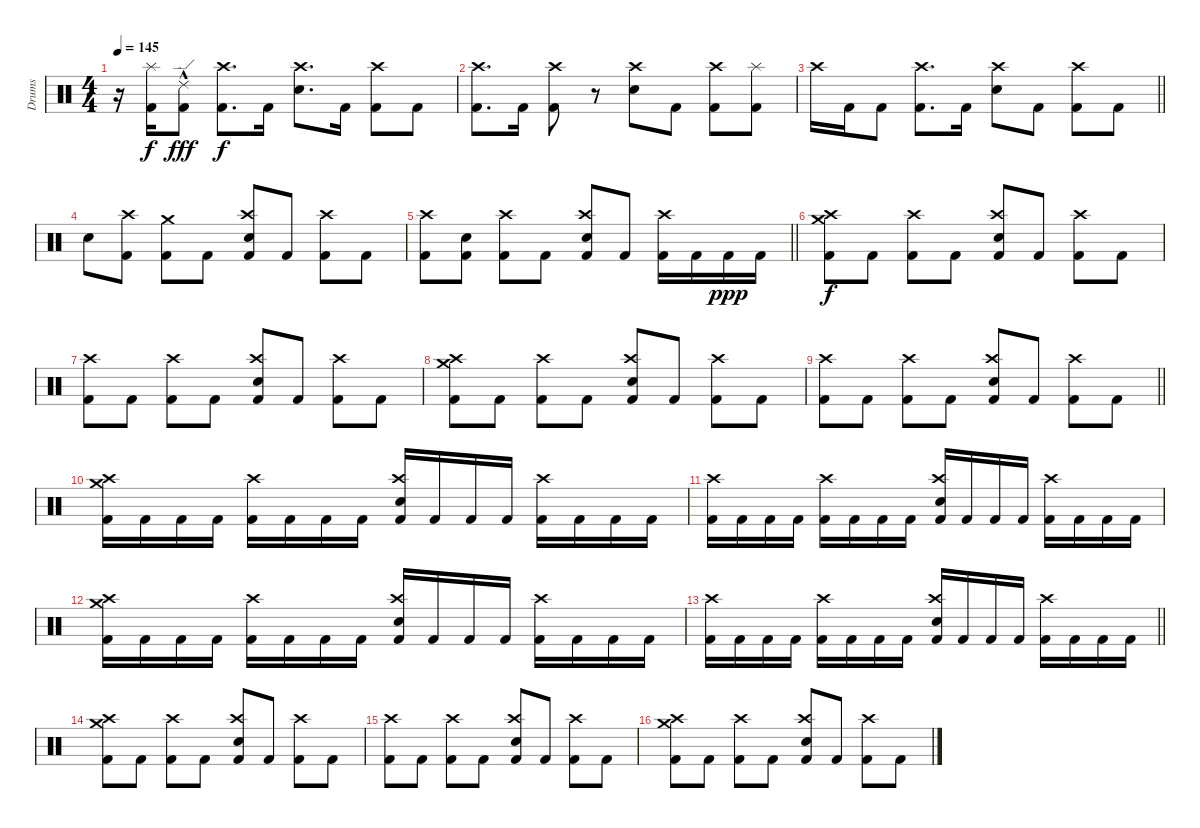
\track ("Drums" "Drums") {instrument percussion}
\staff {score}
\articulation defaults
\ts (4 4)
\tempo 145
\clef neutral
\ks c
r.16{dy f} ("Splash (hit)" "Kick (hit) 2").16 ("Ride (edge) 2"{hac} "Kick (hit) 2").8{dy fff} ("Crash high (hit)" "Kick (hit) 2").8{d dy f} "Kick (hit) 2".16 ("Crash high (hit)" "Electric Snare (hit)").8{d} "Kick (hit) 2".16 ("Crash high (hit)" "Kick (hit) 2").8 "Kick (hit) 2".8 |
("Crash high (hit)" "Kick (hit) 2").8{d} "Kick (hit) 2".16 ("Crash high (hit)" "Kick (hit) 2").8 r.8 ("Crash high (hit)" "Electric Snare (hit)").8 "Kick (hit) 2".8 ("Crash high (hit)" "Kick (hit) 2").8 ("Splash (hit)" "Kick (hit) 2").8 |
\barLineRight lightlight "Crash high (hit)".16 "Kick (hit) 2".16 "Kick (hit) 2".8
("Crash high (hit)" "Kick (hit) 2").8{d} "Kick (hit) 2".16 ("Crash high (hit)" "Electric Snare (hit)").8 "Kick (hit) 2".8 ("Crash high (hit)" "Kick (hit) 2").8 "Kick (hit) 2".8 |
"Electric Snare (hit)".8 ("Crash high (hit)" "Kick (hit) 2").8 ("Crash medium (hit)" "Kick (hit) 2").8 "Kick (hit) 2".8 ("Crash high (hit)" "Electric Snare (hit)" "Kick (hit) 2").8 "Kick (hit) 2".8 ("Crash high (hit)" "Kick (hit) 2").8 "Kick (hit) 2".8 |
\barLineRight lightlight
("Crash high (hit)" "Kick (hit) 2").8 ("Electric Snare (hit)" "Kick (hit) 2").8 ("Crash high (hit)" "Kick (hit) 2").8 "Kick (hit) 2".8 ("Crash high (hit)" "Electric Snare (hit)" "Kick (hit) 2").8 "Kick (hit) 2".8 ("Crash high (hit)" "Kick (hit) 2").16 "Kick (hit) 2".16 "Kick (hit) 2".16{dy ppp} "Kick (hit) 2".16 |
("Crash high (hit)" "Crash medium (hit)" "Kick (hit) 2").8{dy f} "Kick (hit) 2".8 ("Crash high (hit)" "Kick (hit) 2").8 "Kick (hit) 2".8 ("Crash high (hit)" "Electric Snare (hit)" "Kick (hit) 2").8 "Kick (hit) 2".8 ("Crash high (hit)" "Kick (hit) 2").8 "Kick (hit) 2".8 |
("Crash high (hit)" "Kick (hit) 2").8 "Kick (hit) 2".8 ("Crash high (hit)" "Kick (hit) 2").8 "Kick (hit) 2".8 ("Crash high (hit)" "Electric Snare (hit)" "Kick (hit) 2").8 "Kick (hit) 2".8 ("Crash high (hit)" "Kick (hit) 2").8 "Kick (hit) 2".8 |
("Crash high (hit)" "Crash medium (hit)" "Kick (hit) 2").8 "Kick (hit) 2".8 ("Crash high (hit)" "Kick (hit) 2").8 "Kick (hit) 2".8 ("Crash high (hit)" "Electric Snare (hit)" "Kick (hit) 2").8 "Kick (hit) 2".8 ("Crash high (hit)" "Kick (hit) 2").8 "Kick (hit) 2".8 |
\barLineRight lightlight
("Crash high (hit)" "Kick (hit) 2").8 "Kick (hit) 2".8 ("Crash high (hit)" "Kick (hit) 2").8 "Kick (hit) 2".8 ("Crash high (hit)" "Electric Snare (hit)" "Kick (hit) 2").8 "Kick (hit) 2".8 ("Crash high (hit)" "Kick (hit) 2").8 "Kick (hit) 2".8 |
("Crash high (hit)" "Crash medium (hit)" "Kick (hit) 2").16 "Kick (hit) 2".16 "Kick (hit) 2".16 "Kick (hit) 2".16 ("Crash high (hit)" "Kick (hit) 2").16 "Kick (hit) 2".16 "Kick (hit) 2".16 "Kick (hit) 2".16 ("Crash high (hit)" "Electric Snare (hit)" "Kick (hit) 2").16 "Kick (hit) 2".16 "Kick (hit) 2".16 "Kick (hit) 2".16 ("Crash high (hit)" "Kick (hit) 2").16 "Kick (hit) 2".16 "Kick (hit) 2".16 "Kick (hit) 2".16 |
("Crash high (hit)" "Kick (hit) 2").16 "Kick (hit) 2".16 "Kick (hit) 2".16 "Kick (hit) 2".16 ("Crash high (hit)" "Kick (hit) 2").16 "Kick (hit) 2".16 "Kick (hit) 2".16 "Kick (hit) 2".16 ("Crash high (hit)" "Electric Snare (hit)" "Kick (hit) 2").16 "Kick (hit) 2".16 "Kick (hit) 2".16 "Kick (hit) 2".16 ("Crash high (hit)" "Kick (hit) 2").16 "Kick (hit) 2".16 "Kick (hit) 2".16 "Kick (hit) 2".16 |
("Crash high (hit)" "Crash medium (hit)" "Kick (hit) 2").16 "Kick (hit) 2".16 "Kick (hit) 2".16 "Kick (hit) 2".16 ("Crash high (hit)" "Kick (hit) 2").16 "Kick (hit) 2".16 "Kick (hit) 2".16 "Kick (hit) 2".16 ("Crash high (hit)" "Electric Snare (hit)" "Kick (hit) 2").16 "Kick (hit) 2".16 "Kick (hit) 2".16 "Kick (hit) 2".16 ("Crash high (hit)" "Kick (hit) 2").16 "Kick (hit) 2".16 "Kick (hit) 2".16 "Kick (hit) 2".16 |
\barLineRight lightlight
("Crash high (hit)" "Kick (hit) 2").16 "Kick (hit) 2".16 "Kick (hit) 2".16 "Kick (hit) 2".16 ("Crash high (hit)" "Kick (hit) 2").16 "Kick (hit) 2".16 "Kick (hit) 2".16 "Kick (hit) 2".16 ("Crash high (hit)" "Electric Snare (hit)" "Kick (hit) 2").16 "Kick (hit) 2".16 "Kick (hit) 2".16 "Kick (hit) 2".16 ("Crash high (hit)" "Kick (hit) 2").16 "Kick (hit) 2".16 "Kick (hit) 2".16 "Kick (hit) 2".16 |
("Crash high (hit)" "Crash medium (hit)" "Kick (hit) 2").8 "Kick (hit) 2".8 ("Crash high (hit)" "Kick (hit) 2").8 "Kick (hit) 2".8 ("Crash high (hit)" "Electric Snare (hit)" "Kick (hit) 2").8 "Kick (hit) 2".8 ("Crash high (hit)" "Kick (hit) 2").8 "Kick (hit) 2".8 |
("Crash high (hit)" "Kick (hit) 2").8 "Kick (hit) 2".8 ("Crash high (hit)" "Kick (hit) 2").8 "Kick (hit) 2".8 ("Crash high (hit)" "Electric Snare (hit)" "Kick (hit) 2").8 "Kick (hit) 2".8 ("Crash high (hit)" "Kick (hit) 2").8 "Kick (hit) 2".8 |
("Crash high (hit)" "Crash medium (hit)" "Kick (hit) 2").8 "Kick (hit) 2".8 ("Crash high (hit)" "Kick (hit) 2").8 "Kick (hit) 2".8 ("Crash high (hit)" "Electric Snare (hit)" "Kick (hit) 2").8 "Kick (hit) 2".8 ("Crash high (hit)" "Kick (hit) 2").8 "Kick (hit) 2".8
